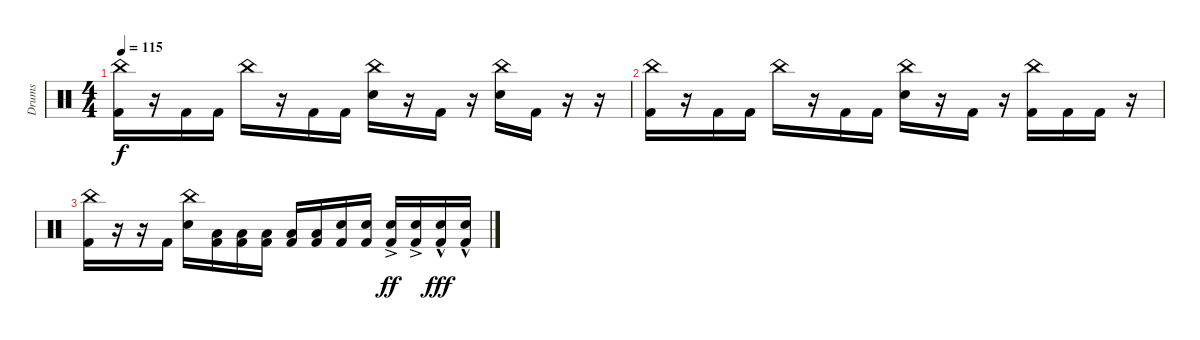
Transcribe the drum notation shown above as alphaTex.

\track ("Drums" "Drums") {instrument percussion}
\staff {score}
\articulation defaults
\ts (4 4)
\tempo 115
\clef neutral
\ks c
("China (hit)" "Kick (hit) 2").16{dy f} r.16 "Kick (hit) 2".16 "Kick (hit) 2".16 "China (hit)".16 r.16 "Kick (hit) 2".16 "Kick (hit) 2".16 ("China (hit)" "Electric Snare (hit)").16 r.16 "Kick (hit) 2".16 r.16 ("China (hit)" "Electric Snare (hit)").16 "Kick (hit) 2".16 r.16 r.16 |
("China (hit)" "Kick (hit) 2").16 r.16 "Kick (hit) 2".16 "Kick (hit) 2".16 "China (hit)".16 r.16 "Kick (hit) 2".16 "Kick (hit) 2".16 ("China (hit)" "Electric Snare (hit)").16 r.16 "Kick (hit) 2".16 r.16 ("China (hit)" "Kick (hit) 2").16 "Kick (hit) 2".16 "Kick (hit) 2".16 r.16 |
("China (hit)" "Kick (hit) 2").16 r.16 r.16 "Kick (hit) 2".16 ("China (hit)" "Electric Snare (hit)").16 ("Low Tom (hit)" "Kick (hit) 2").16 ("Low Tom (hit)" "Kick (hit) 2").16 ("Low Tom (hit)" "Kick (hit) 2").16 ("Low Tom (hit)" "Kick (hit) 2").16 ("Low Tom (hit)" "Kick (hit) 2").16 ("Electric Snare (hit)" "Kick (hit) 2").16 ("Electric Snare (hit)" "Kick (hit) 2").16 ("Electric Snare (hit)"{ac} "Kick (hit) 2").16{dy ff} ("Electric Snare (hit)"{ac} "Kick (hit) 2").16 ("Electric Snare (hit)"{hac} "Kick (hit) 2").16{dy fff} ("Electric Snare (hit)"{hac} "Kick (hit) 2").16
